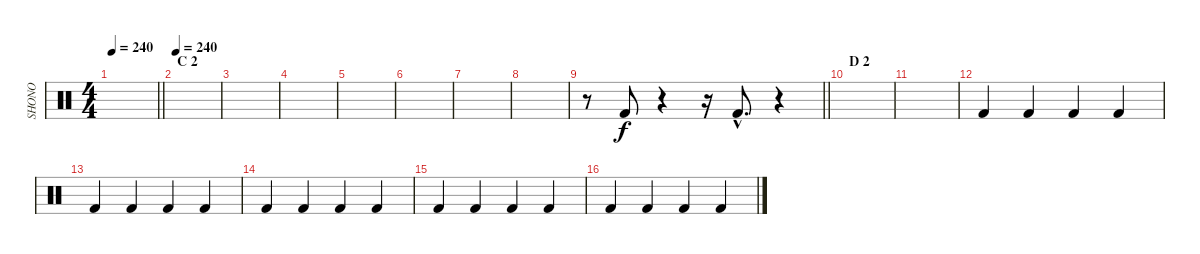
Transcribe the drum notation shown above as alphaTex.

\track ("SHONO" "SHONO") {instrument percussion}
\staff {score}
\articulation defaults
\ts (4 4)
\tempo 240
\clef neutral
\barLineRight lightlight
\ks c
|
\section ("" "C 2")
\tempo 240
|
|
|
|
|
|
|
\barLineRight lightlight
r.8 "Kick (hit) 2".8 r.4 r.16 "Kick (hit) 2"{hac}.8{d} r.4 |
\section ("" "D 2")
|
|
"Kick (hit) 2".4 "Kick (hit) 2".4 "Kick (hit) 2".4 "Kick (hit) 2".4 |
"Kick (hit) 2".4 "Kick (hit) 2".4 "Kick (hit) 2".4 "Kick (hit) 2".4 |
"Kick (hit) 2".4 "Kick (hit) 2".4 "Kick (hit) 2".4 "Kick (hit) 2".4 |
"Kick (hit) 2".4 "Kick (hit) 2".4 "Kick (hit) 2".4 "Kick (hit) 2".4 |
"Kick (hit) 2".4 "Kick (hit) 2".4 "Kick (hit) 2".4 "Kick (hit) 2".4
